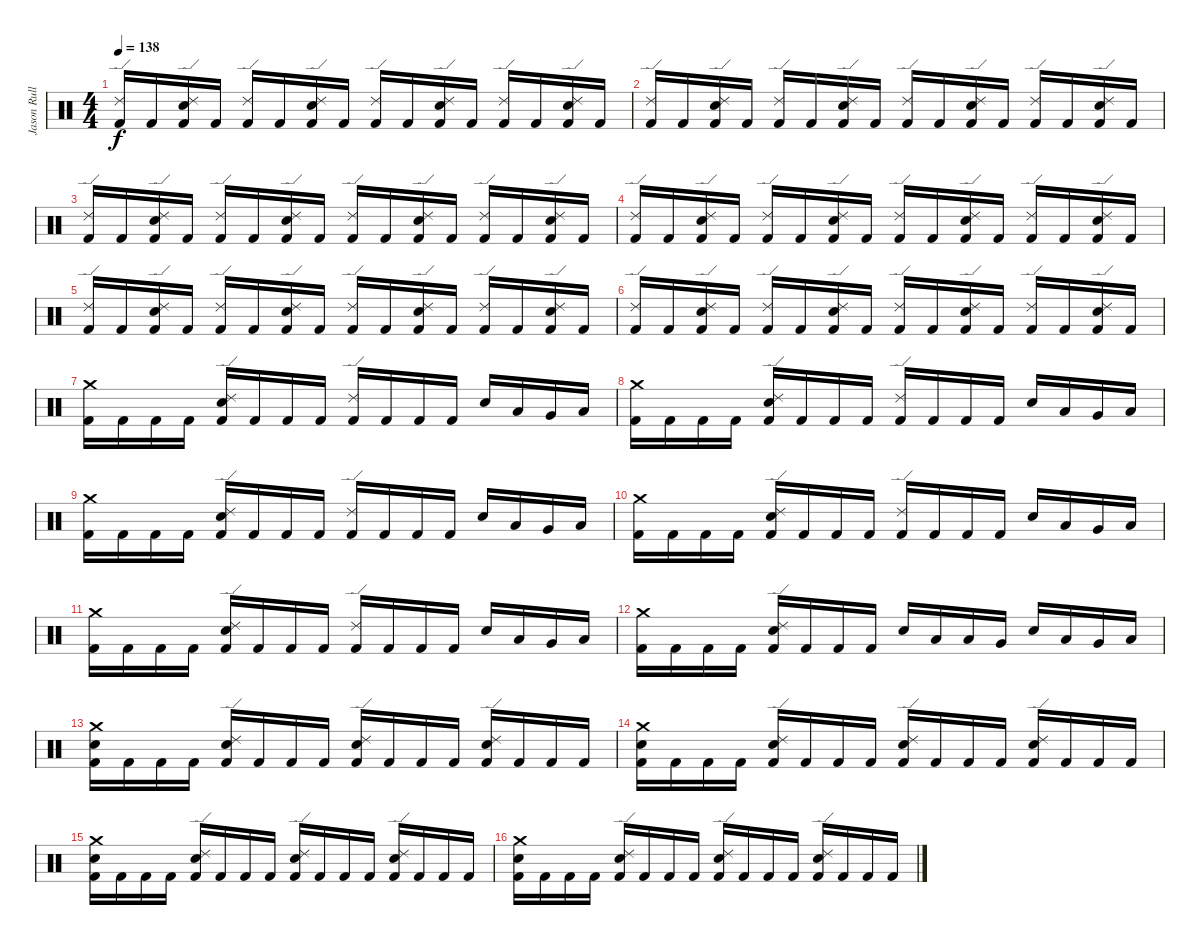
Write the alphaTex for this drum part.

\track ("Jason Rullo" "Jason Rull") {instrument percussion}
\staff {score}
\articulation defaults
\ts (4 4)
\tempo 138
\clef neutral
\ks c
("Ride (edge) 2" "Kick (hit) 2").16{dy f} "Kick (hit) 2".16 ("Ride (edge) 2" "Electric Snare (hit)" "Kick (hit) 2").16 "Kick (hit) 2".16 ("Ride (edge) 2" "Kick (hit) 2").16 "Kick (hit) 2".16 ("Ride (edge) 2" "Electric Snare (hit)" "Kick (hit) 2").16 "Kick (hit) 2".16 ("Ride (edge) 2" "Kick (hit) 2").16 "Kick (hit) 2".16 ("Ride (edge) 2" "Electric Snare (hit)" "Kick (hit) 2").16 "Kick (hit) 2".16 ("Ride (edge) 2" "Kick (hit) 2").16 "Kick (hit) 2".16 ("Ride (edge) 2" "Electric Snare (hit)" "Kick (hit) 2").16 "Kick (hit) 2".16 |
("Ride (edge) 2" "Kick (hit) 2").16 "Kick (hit) 2".16 ("Ride (edge) 2" "Electric Snare (hit)" "Kick (hit) 2").16 "Kick (hit) 2".16 ("Ride (edge) 2" "Kick (hit) 2").16 "Kick (hit) 2".16 ("Ride (edge) 2" "Electric Snare (hit)" "Kick (hit) 2").16 "Kick (hit) 2".16 ("Ride (edge) 2" "Kick (hit) 2").16 "Kick (hit) 2".16 ("Ride (edge) 2" "Electric Snare (hit)" "Kick (hit) 2").16 "Kick (hit) 2".16 ("Ride (edge) 2" "Kick (hit) 2").16 "Kick (hit) 2".16 ("Ride (edge) 2" "Electric Snare (hit)" "Kick (hit) 2").16 "Kick (hit) 2".16 |
("Ride (edge) 2" "Kick (hit) 2").16 "Kick (hit) 2".16 ("Ride (edge) 2" "Electric Snare (hit)" "Kick (hit) 2").16 "Kick (hit) 2".16 ("Ride (edge) 2" "Kick (hit) 2").16 "Kick (hit) 2".16 ("Ride (edge) 2" "Electric Snare (hit)" "Kick (hit) 2").16 "Kick (hit) 2".16 ("Ride (edge) 2" "Kick (hit) 2").16 "Kick (hit) 2".16 ("Ride (edge) 2" "Electric Snare (hit)" "Kick (hit) 2").16 "Kick (hit) 2".16 ("Ride (edge) 2" "Kick (hit) 2").16 "Kick (hit) 2".16 ("Ride (edge) 2" "Electric Snare (hit)" "Kick (hit) 2").16 "Kick (hit) 2".16 |
("Ride (edge) 2" "Kick (hit) 2").16 "Kick (hit) 2".16 ("Ride (edge) 2" "Electric Snare (hit)" "Kick (hit) 2").16 "Kick (hit) 2".16 ("Ride (edge) 2" "Kick (hit) 2").16 "Kick (hit) 2".16 ("Ride (edge) 2" "Electric Snare (hit)" "Kick (hit) 2").16 "Kick (hit) 2".16 ("Ride (edge) 2" "Kick (hit) 2").16 "Kick (hit) 2".16 ("Ride (edge) 2" "Electric Snare (hit)" "Kick (hit) 2").16 "Kick (hit) 2".16 ("Ride (edge) 2" "Kick (hit) 2").16 "Kick (hit) 2".16 ("Ride (edge) 2" "Electric Snare (hit)" "Kick (hit) 2").16 "Kick (hit) 2".16 |
("Ride (edge) 2" "Kick (hit) 2").16 "Kick (hit) 2".16 ("Ride (edge) 2" "Electric Snare (hit)" "Kick (hit) 2").16 "Kick (hit) 2".16 ("Ride (edge) 2" "Kick (hit) 2").16 "Kick (hit) 2".16 ("Ride (edge) 2" "Electric Snare (hit)" "Kick (hit) 2").16 "Kick (hit) 2".16 ("Ride (edge) 2" "Kick (hit) 2").16 "Kick (hit) 2".16 ("Ride (edge) 2" "Electric Snare (hit)" "Kick (hit) 2").16 "Kick (hit) 2".16 ("Ride (edge) 2" "Kick (hit) 2").16 "Kick (hit) 2".16 ("Ride (edge) 2" "Electric Snare (hit)" "Kick (hit) 2").16 "Kick (hit) 2".16 |
("Ride (edge) 2" "Kick (hit) 2").16 "Kick (hit) 2".16 ("Ride (edge) 2" "Electric Snare (hit)" "Kick (hit) 2").16 "Kick (hit) 2".16 ("Ride (edge) 2" "Kick (hit) 2").16 "Kick (hit) 2".16 ("Ride (edge) 2" "Electric Snare (hit)" "Kick (hit) 2").16 "Kick (hit) 2".16 ("Ride (edge) 2" "Kick (hit) 2").16 "Kick (hit) 2".16 ("Ride (edge) 2" "Electric Snare (hit)" "Kick (hit) 2").16 "Kick (hit) 2".16 ("Ride (edge) 2" "Kick (hit) 2").16 "Kick (hit) 2".16 ("Ride (edge) 2" "Electric Snare (hit)" "Kick (hit) 2").16 "Kick (hit) 2".16 |
("Crash medium (hit)" "Kick (hit) 2").16 "Kick (hit) 2".16 "Kick (hit) 2".16 "Kick (hit) 2".16 ("Electric Snare (hit)" "Ride (edge) 2" "Kick (hit) 2").16 "Kick (hit) 2".16 "Kick (hit) 2".16 "Kick (hit) 2".16 ("Ride (edge) 2" "Kick (hit) 2").16 "Kick (hit) 2".16 "Kick (hit) 2".16 "Kick (hit) 2".16 "Electric Snare (hit)".16 "Low Tom (hit)".16 "Very Low Tom (hit)".16 "Low Floor Tom (hit)".16 |
("Crash medium (hit)" "Kick (hit) 2").16 "Kick (hit) 2".16 "Kick (hit) 2".16 "Kick (hit) 2".16 ("Electric Snare (hit)" "Ride (edge) 2" "Kick (hit) 2").16 "Kick (hit) 2".16 "Kick (hit) 2".16 "Kick (hit) 2".16 ("Ride (edge) 2" "Kick (hit) 2").16 "Kick (hit) 2".16 "Kick (hit) 2".16 "Kick (hit) 2".16 "Electric Snare (hit)".16 "Low Tom (hit)".16 "Very Low Tom (hit)".16 "Low Floor Tom (hit)".16 |
("Crash medium (hit)" "Kick (hit) 2").16 "Kick (hit) 2".16 "Kick (hit) 2".16 "Kick (hit) 2".16 ("Electric Snare (hit)" "Ride (edge) 2" "Kick (hit) 2").16 "Kick (hit) 2".16 "Kick (hit) 2".16 "Kick (hit) 2".16 ("Ride (edge) 2" "Kick (hit) 2").16 "Kick (hit) 2".16 "Kick (hit) 2".16 "Kick (hit) 2".16 "Electric Snare (hit)".16 "Low Tom (hit)".16 "Very Low Tom (hit)".16 "Low Floor Tom (hit)".16 |
("Crash medium (hit)" "Kick (hit) 2").16 "Kick (hit) 2".16 "Kick (hit) 2".16 "Kick (hit) 2".16 ("Electric Snare (hit)" "Ride (edge) 2" "Kick (hit) 2").16 "Kick (hit) 2".16 "Kick (hit) 2".16 "Kick (hit) 2".16 ("Ride (edge) 2" "Kick (hit) 2").16 "Kick (hit) 2".16 "Kick (hit) 2".16 "Kick (hit) 2".16 "Electric Snare (hit)".16 "Low Tom (hit)".16 "Very Low Tom (hit)".16 "Low Floor Tom (hit)".16 |
("Crash medium (hit)" "Kick (hit) 2").16 "Kick (hit) 2".16 "Kick (hit) 2".16 "Kick (hit) 2".16 ("Electric Snare (hit)" "Ride (edge) 2" "Kick (hit) 2").16 "Kick (hit) 2".16 "Kick (hit) 2".16 "Kick (hit) 2".16 ("Ride (edge) 2" "Kick (hit) 2").16 "Kick (hit) 2".16 "Kick (hit) 2".16 "Kick (hit) 2".16 "Electric Snare (hit)".16 "Low Tom (hit)".16 "Very Low Tom (hit)".16 "Low Floor Tom (hit)".16 |
("Crash medium (hit)" "Kick (hit) 2").16 "Kick (hit) 2".16 "Kick (hit) 2".16 "Kick (hit) 2".16 ("Electric Snare (hit)" "Ride (edge) 2" "Kick (hit) 2").16 "Kick (hit) 2".16 "Kick (hit) 2".16 "Kick (hit) 2".16 "Electric Snare (hit)".16 "Low Tom (hit)".16 "Low Floor Tom (hit)".16 "Very Low Tom (hit)".16 "Electric Snare (hit)".16 "Low Tom (hit)".16 "Very Low Tom (hit)".16 "Low Floor Tom (hit)".16 |
("Kick (hit) 2" "Crash medium (hit)" "Electric Snare (hit)").16 "Kick (hit) 2".16 "Kick (hit) 2".16 "Kick (hit) 2".16 ("Kick (hit) 2" "Ride (edge) 2" "Electric Snare (hit)").16 "Kick (hit) 2".16 "Kick (hit) 2".16 "Kick (hit) 2".16 ("Kick (hit) 2" "Ride (edge) 2" "Electric Snare (hit)").16 "Kick (hit) 2".16 "Kick (hit) 2".16 "Kick (hit) 2".16 ("Kick (hit) 2" "Ride (edge) 2" "Electric Snare (hit)").16 "Kick (hit) 2".16 "Kick (hit) 2".16 "Kick (hit) 2".16 |
("Kick (hit) 2" "Crash medium (hit)" "Electric Snare (hit)").16 "Kick (hit) 2".16 "Kick (hit) 2".16 "Kick (hit) 2".16 ("Kick (hit) 2" "Ride (edge) 2" "Electric Snare (hit)").16 "Kick (hit) 2".16 "Kick (hit) 2".16 "Kick (hit) 2".16 ("Kick (hit) 2" "Ride (edge) 2" "Electric Snare (hit)").16 "Kick (hit) 2".16 "Kick (hit) 2".16 "Kick (hit) 2".16 ("Kick (hit) 2" "Ride (edge) 2" "Electric Snare (hit)").16 "Kick (hit) 2".16 "Kick (hit) 2".16 "Kick (hit) 2".16 |
("Kick (hit) 2" "Crash medium (hit)" "Electric Snare (hit)").16 "Kick (hit) 2".16 "Kick (hit) 2".16 "Kick (hit) 2".16 ("Kick (hit) 2" "Ride (edge) 2" "Electric Snare (hit)").16 "Kick (hit) 2".16 "Kick (hit) 2".16 "Kick (hit) 2".16 ("Kick (hit) 2" "Ride (edge) 2" "Electric Snare (hit)").16 "Kick (hit) 2".16 "Kick (hit) 2".16 "Kick (hit) 2".16 ("Kick (hit) 2" "Ride (edge) 2" "Electric Snare (hit)").16 "Kick (hit) 2".16 "Kick (hit) 2".16 "Kick (hit) 2".16 |
("Kick (hit) 2" "Crash medium (hit)" "Electric Snare (hit)").16 "Kick (hit) 2".16 "Kick (hit) 2".16 "Kick (hit) 2".16 ("Kick (hit) 2" "Ride (edge) 2" "Electric Snare (hit)").16 "Kick (hit) 2".16 "Kick (hit) 2".16 "Kick (hit) 2".16 ("Kick (hit) 2" "Ride (edge) 2" "Electric Snare (hit)").16 "Kick (hit) 2".16 "Kick (hit) 2".16 "Kick (hit) 2".16 ("Kick (hit) 2" "Ride (edge) 2" "Electric Snare (hit)").16 "Kick (hit) 2".16 "Kick (hit) 2".16 "Kick (hit) 2".16
